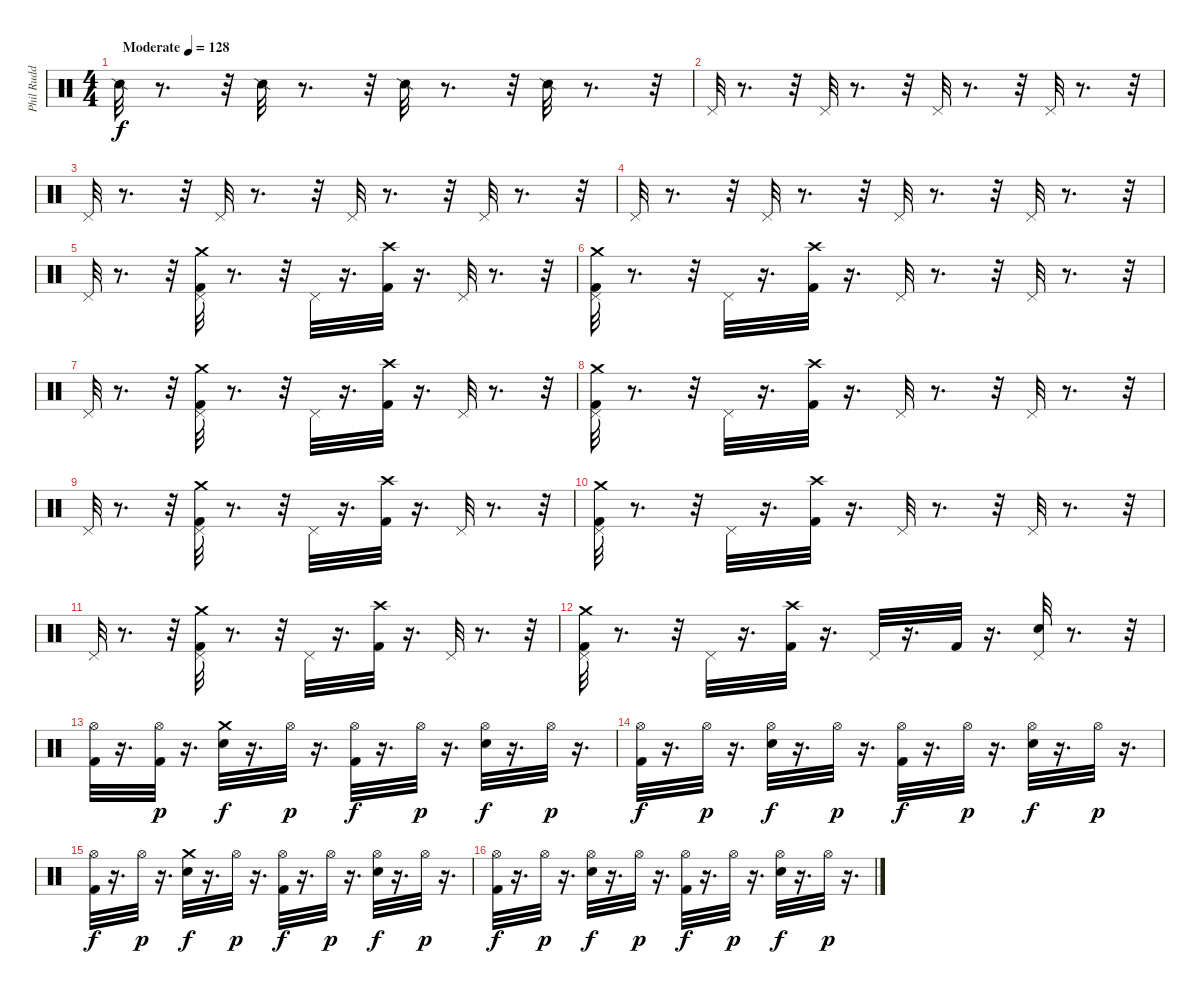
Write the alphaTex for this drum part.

\track ("Phil Rudd" "Phil Rudd") {instrument percussion}
\staff {score}
\articulation defaults
\ts (4 4)
\tempo (128 "Moderate")
\clef neutral
\ks c "Snare (side stick) 2".32{dy f}
r.8{d} r.32 "Snare (side stick) 2".32 r.8{d} r.32 "Snare (side stick) 2".32 r.8{d} r.32 "Snare (side stick) 2".32 r.8{d} r.32 |
"Pedal Hi-Hat (hit)".32 r.8{d} r.32 "Pedal Hi-Hat (hit)".32 r.8{d} r.32 "Pedal Hi-Hat (hit)".32 r.8{d} r.32 "Pedal Hi-Hat (hit)".32 r.8{d} r.32 |
"Pedal Hi-Hat (hit)".32 r.8{d} r.32 "Pedal Hi-Hat (hit)".32 r.8{d} r.32 "Pedal Hi-Hat (hit)".32 r.8{d} r.32 "Pedal Hi-Hat (hit)".32 r.8{d} r.32 |
"Pedal Hi-Hat (hit)".32 r.8{d} r.32 "Pedal Hi-Hat (hit)".32 r.8{d} r.32 "Pedal Hi-Hat (hit)".32 r.8{d} r.32 "Pedal Hi-Hat (hit)".32 r.8{d} r.32 |
"Pedal Hi-Hat (hit)".32 r.8{d} r.32 ("Kick (hit) 2" "Crash medium (hit)" "Pedal Hi-Hat (hit)").32 r.8{d} r.32 "Pedal Hi-Hat (hit)".32 r.16{d} ("Kick (hit) 2" "Crash high (hit)").32 r.16{d} "Pedal Hi-Hat (hit)".32 r.8{d} r.32 |
("Kick (hit) 2" "Crash medium (hit)" "Pedal Hi-Hat (hit)").32 r.8{d} r.32 "Pedal Hi-Hat (hit)".32 r.16{d} ("Kick (hit) 2" "Crash high (hit)").32 r.16{d} "Pedal Hi-Hat (hit)".32 r.8{d} r.32 "Pedal Hi-Hat (hit)".32 r.8{d} r.32 |
"Pedal Hi-Hat (hit)".32 r.8{d} r.32 ("Kick (hit) 2" "Crash medium (hit)" "Pedal Hi-Hat (hit)").32 r.8{d} r.32 "Pedal Hi-Hat (hit)".32 r.16{d} ("Kick (hit) 2" "Crash high (hit)").32 r.16{d} "Pedal Hi-Hat (hit)".32 r.8{d} r.32 |
("Kick (hit) 2" "Crash medium (hit)" "Pedal Hi-Hat (hit)").32 r.8{d} r.32 "Pedal Hi-Hat (hit)".32 r.16{d} ("Kick (hit) 2" "Crash high (hit)").32 r.16{d} "Pedal Hi-Hat (hit)".32 r.8{d} r.32 "Pedal Hi-Hat (hit)".32 r.8{d} r.32 |
"Pedal Hi-Hat (hit)".32 r.8{d} r.32 ("Kick (hit) 2" "Crash medium (hit)" "Pedal Hi-Hat (hit)").32 r.8{d} r.32 "Pedal Hi-Hat (hit)".32 r.16{d} ("Kick (hit) 2" "Crash high (hit)").32 r.16{d} "Pedal Hi-Hat (hit)".32 r.8{d} r.32 |
("Kick (hit) 2" "Crash medium (hit)" "Pedal Hi-Hat (hit)").32 r.8{d} r.32 "Pedal Hi-Hat (hit)".32 r.16{d} ("Kick (hit) 2" "Crash high (hit)").32 r.16{d} "Pedal Hi-Hat (hit)".32 r.8{d} r.32 "Pedal Hi-Hat (hit)".32 r.8{d} r.32 |
"Pedal Hi-Hat (hit)".32 r.8{d} r.32 ("Kick (hit) 2" "Crash medium (hit)" "Pedal Hi-Hat (hit)").32 r.8{d} r.32 "Pedal Hi-Hat (hit)".32 r.16{d} ("Kick (hit) 2" "Crash high (hit)").32 r.16{d} "Pedal Hi-Hat (hit)".32 r.8{d} r.32 |
("Kick (hit) 2" "Crash medium (hit)" "Pedal Hi-Hat (hit)").32 r.8{d} r.32 "Pedal Hi-Hat (hit)".32 r.16{d} ("Crash high (hit)" "Kick (hit) 2").32 r.16{d} "Pedal Hi-Hat (hit)".32 r.16{d} "Kick (hit) 2".32 r.16{d} ("Electric Snare (hit)" "Pedal Hi-Hat (hit)").32 r.8{d} r.32 |
("Hi-Hat (open)" "Kick (hit) 2").32 r.16{d} ("Hi-Hat (open)" "Kick (hit) 2").32{dy p} r.16{d} ("Crash medium (hit)" "Electric Snare (hit)").32{dy f} r.16{d} "Hi-Hat (open)".32{dy p} r.16{d} ("Hi-Hat (open)" "Kick (hit) 2").32{dy f} r.16{d} "Hi-Hat (open)".32{dy p} r.16{d} ("Hi-Hat (open)" "Electric Snare (hit)").32{dy f} r.16{d} "Hi-Hat (open)".32{dy p} r.16{d} |
("Hi-Hat (open)" "Kick (hit) 2").32{dy f} r.16{d} "Hi-Hat (open)".32{dy p} r.16{d} ("Hi-Hat (open)" "Electric Snare (hit)").32{dy f} r.16{d} "Hi-Hat (open)".32{dy p} r.16{d} ("Hi-Hat (open)" "Kick (hit) 2").32{dy f} r.16{d} "Hi-Hat (open)".32{dy p} r.16{d} ("Hi-Hat (open)" "Electric Snare (hit)").32{dy f} r.16{d} "Hi-Hat (open)".32{dy p} r.16{d} |
("Hi-Hat (open)" "Kick (hit) 2").32{dy f} r.16{d} "Hi-Hat (open)".32{dy p} r.16{d} ("Crash medium (hit)" "Electric Snare (hit)").32{dy f} r.16{d} "Hi-Hat (open)".32{dy p} r.16{d} ("Hi-Hat (open)" "Kick (hit) 2").32{dy f} r.16{d} "Hi-Hat (open)".32{dy p} r.16{d} ("Hi-Hat (open)" "Electric Snare (hit)").32{dy f} r.16{d} "Hi-Hat (open)".32{dy p} r.16{d} |
("Hi-Hat (open)" "Kick (hit) 2").32{dy f} r.16{d} "Hi-Hat (open)".32{dy p} r.16{d} ("Hi-Hat (open)" "Electric Snare (hit)").32{dy f} r.16{d} "Hi-Hat (open)".32{dy p} r.16{d} ("Hi-Hat (open)" "Kick (hit) 2").32{dy f} r.16{d} "Hi-Hat (open)".32{dy p} r.16{d} ("Hi-Hat (open)" "Electric Snare (hit)").32{dy f} r.16{d} "Hi-Hat (open)".32{dy p} r.16{d}
